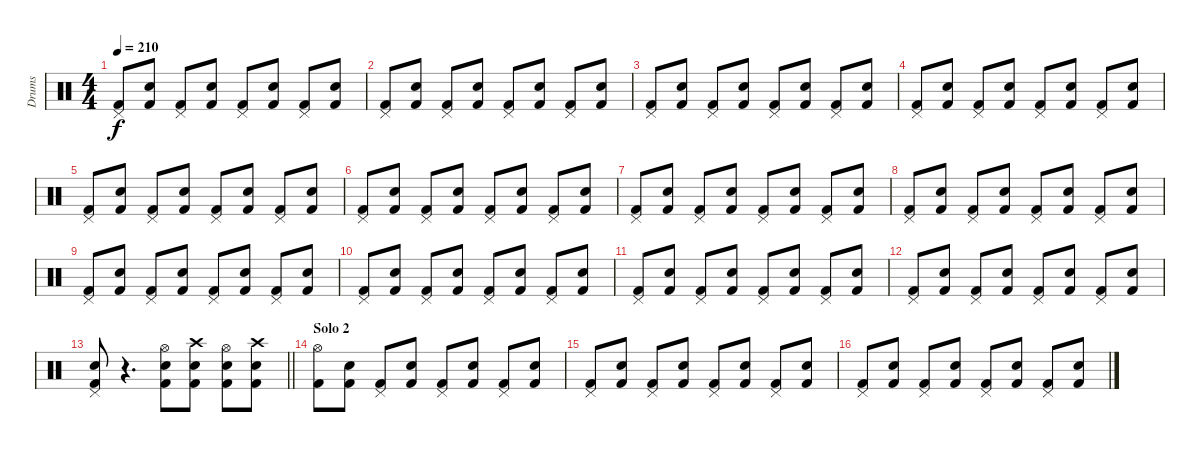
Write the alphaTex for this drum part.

\track ("Drums" "Drums") {instrument percussion}
\staff {score}
\articulation defaults
\ts (4 4)
\tempo 210
\clef neutral
\ks c
("Pedal Hi-Hat (hit)" "Kick (hit) 2").8{dy f} ("Snare (hit) 2" "Kick (hit) 2").8 ("Pedal Hi-Hat (hit)" "Kick (hit) 2").8 ("Snare (hit) 2" "Kick (hit) 2").8 ("Pedal Hi-Hat (hit)" "Kick (hit) 2").8 ("Snare (hit) 2" "Kick (hit) 2").8 ("Pedal Hi-Hat (hit)" "Kick (hit) 2").8 ("Snare (hit) 2" "Kick (hit) 2").8 |
("Pedal Hi-Hat (hit)" "Kick (hit) 2").8 ("Snare (hit) 2" "Kick (hit) 2").8 ("Pedal Hi-Hat (hit)" "Kick (hit) 2").8 ("Snare (hit) 2" "Kick (hit) 2").8 ("Pedal Hi-Hat (hit)" "Kick (hit) 2").8 ("Snare (hit) 2" "Kick (hit) 2").8 ("Pedal Hi-Hat (hit)" "Kick (hit) 2").8 ("Snare (hit) 2" "Kick (hit) 2").8 |
("Pedal Hi-Hat (hit)" "Kick (hit) 2").8 ("Snare (hit) 2" "Kick (hit) 2").8 ("Pedal Hi-Hat (hit)" "Kick (hit) 2").8 ("Snare (hit) 2" "Kick (hit) 2").8 ("Pedal Hi-Hat (hit)" "Kick (hit) 2").8 ("Snare (hit) 2" "Kick (hit) 2").8 ("Pedal Hi-Hat (hit)" "Kick (hit) 2").8 ("Snare (hit) 2" "Kick (hit) 2").8 |
("Pedal Hi-Hat (hit)" "Kick (hit) 2").8 ("Snare (hit) 2" "Kick (hit) 2").8 ("Pedal Hi-Hat (hit)" "Kick (hit) 2").8 ("Snare (hit) 2" "Kick (hit) 2").8 ("Pedal Hi-Hat (hit)" "Kick (hit) 2").8 ("Snare (hit) 2" "Kick (hit) 2").8 ("Pedal Hi-Hat (hit)" "Kick (hit) 2").8 ("Snare (hit) 2" "Kick (hit) 2").8 |
("Pedal Hi-Hat (hit)" "Kick (hit) 2").8 ("Snare (hit) 2" "Kick (hit) 2").8 ("Pedal Hi-Hat (hit)" "Kick (hit) 2").8 ("Snare (hit) 2" "Kick (hit) 2").8 ("Pedal Hi-Hat (hit)" "Kick (hit) 2").8 ("Snare (hit) 2" "Kick (hit) 2").8 ("Pedal Hi-Hat (hit)" "Kick (hit) 2").8 ("Snare (hit) 2" "Kick (hit) 2").8 |
("Pedal Hi-Hat (hit)" "Kick (hit) 2").8 ("Snare (hit) 2" "Kick (hit) 2").8 ("Pedal Hi-Hat (hit)" "Kick (hit) 2").8 ("Snare (hit) 2" "Kick (hit) 2").8 ("Pedal Hi-Hat (hit)" "Kick (hit) 2").8 ("Snare (hit) 2" "Kick (hit) 2").8 ("Pedal Hi-Hat (hit)" "Kick (hit) 2").8 ("Snare (hit) 2" "Kick (hit) 2").8 |
("Pedal Hi-Hat (hit)" "Kick (hit) 2").8 ("Snare (hit) 2" "Kick (hit) 2").8 ("Pedal Hi-Hat (hit)" "Kick (hit) 2").8 ("Snare (hit) 2" "Kick (hit) 2").8 ("Pedal Hi-Hat (hit)" "Kick (hit) 2").8 ("Snare (hit) 2" "Kick (hit) 2").8 ("Pedal Hi-Hat (hit)" "Kick (hit) 2").8 ("Snare (hit) 2" "Kick (hit) 2").8 |
("Pedal Hi-Hat (hit)" "Kick (hit) 2").8 ("Snare (hit) 2" "Kick (hit) 2").8 ("Pedal Hi-Hat (hit)" "Kick (hit) 2").8 ("Snare (hit) 2" "Kick (hit) 2").8 ("Pedal Hi-Hat (hit)" "Kick (hit) 2").8 ("Snare (hit) 2" "Kick (hit) 2").8 ("Pedal Hi-Hat (hit)" "Kick (hit) 2").8 ("Snare (hit) 2" "Kick (hit) 2").8 |
("Pedal Hi-Hat (hit)" "Kick (hit) 2").8 ("Snare (hit) 2" "Kick (hit) 2").8 ("Pedal Hi-Hat (hit)" "Kick (hit) 2").8 ("Snare (hit) 2" "Kick (hit) 2").8 ("Pedal Hi-Hat (hit)" "Kick (hit) 2").8 ("Snare (hit) 2" "Kick (hit) 2").8 ("Pedal Hi-Hat (hit)" "Kick (hit) 2").8 ("Snare (hit) 2" "Kick (hit) 2").8 |
("Pedal Hi-Hat (hit)" "Kick (hit) 2").8 ("Snare (hit) 2" "Kick (hit) 2").8 ("Pedal Hi-Hat (hit)" "Kick (hit) 2").8 ("Snare (hit) 2" "Kick (hit) 2").8 ("Pedal Hi-Hat (hit)" "Kick (hit) 2").8 ("Snare (hit) 2" "Kick (hit) 2").8 ("Pedal Hi-Hat (hit)" "Kick (hit) 2").8 ("Snare (hit) 2" "Kick (hit) 2").8 |
("Pedal Hi-Hat (hit)" "Kick (hit) 2").8 ("Snare (hit) 2" "Kick (hit) 2").8 ("Pedal Hi-Hat (hit)" "Kick (hit) 2").8 ("Snare (hit) 2" "Kick (hit) 2").8 ("Pedal Hi-Hat (hit)" "Kick (hit) 2").8 ("Snare (hit) 2" "Kick (hit) 2").8 ("Pedal Hi-Hat (hit)" "Kick (hit) 2").8 ("Snare (hit) 2" "Kick (hit) 2").8 |
("Pedal Hi-Hat (hit)" "Kick (hit) 2").8 ("Snare (hit) 2" "Kick (hit) 2").8 ("Pedal Hi-Hat (hit)" "Kick (hit) 2").8 ("Snare (hit) 2" "Kick (hit) 2").8 ("Pedal Hi-Hat (hit)" "Kick (hit) 2").8 ("Snare (hit) 2" "Kick (hit) 2").8 ("Pedal Hi-Hat (hit)" "Kick (hit) 2").8 ("Snare (hit) 2" "Kick (hit) 2").8 |
\barLineRight lightlight
("Pedal Hi-Hat (hit)" "Snare (hit) 2" "Kick (hit) 2").8 r.4{d} ("Hi-Hat (open)" "Snare (hit) 2" "Kick (hit) 2").8 ("Crash high (hit)" "Snare (hit) 2" "Kick (hit) 2").8 ("Hi-Hat (open)" "Snare (hit) 2" "Kick (hit) 2").8 ("Crash high (hit)" "Snare (hit) 2" "Kick (hit) 2").8 |
\section ("" "Solo 2")
("Hi-Hat (open)" "Kick (hit) 2").8 ("Snare (hit) 2" "Kick (hit) 2").8 ("Pedal Hi-Hat (hit)" "Kick (hit) 2").8 ("Snare (hit) 2" "Kick (hit) 2").8 ("Pedal Hi-Hat (hit)" "Kick (hit) 2").8 ("Snare (hit) 2" "Kick (hit) 2").8 ("Pedal Hi-Hat (hit)" "Kick (hit) 2").8 ("Snare (hit) 2" "Kick (hit) 2").8 |
("Pedal Hi-Hat (hit)" "Kick (hit) 2").8 ("Snare (hit) 2" "Kick (hit) 2").8 ("Pedal Hi-Hat (hit)" "Kick (hit) 2").8 ("Snare (hit) 2" "Kick (hit) 2").8 ("Pedal Hi-Hat (hit)" "Kick (hit) 2").8 ("Snare (hit) 2" "Kick (hit) 2").8 ("Pedal Hi-Hat (hit)" "Kick (hit) 2").8 ("Snare (hit) 2" "Kick (hit) 2").8 |
("Pedal Hi-Hat (hit)" "Kick (hit) 2").8 ("Snare (hit) 2" "Kick (hit) 2").8 ("Pedal Hi-Hat (hit)" "Kick (hit) 2").8 ("Snare (hit) 2" "Kick (hit) 2").8 ("Pedal Hi-Hat (hit)" "Kick (hit) 2").8 ("Snare (hit) 2" "Kick (hit) 2").8 ("Pedal Hi-Hat (hit)" "Kick (hit) 2").8 ("Snare (hit) 2" "Kick (hit) 2").8
